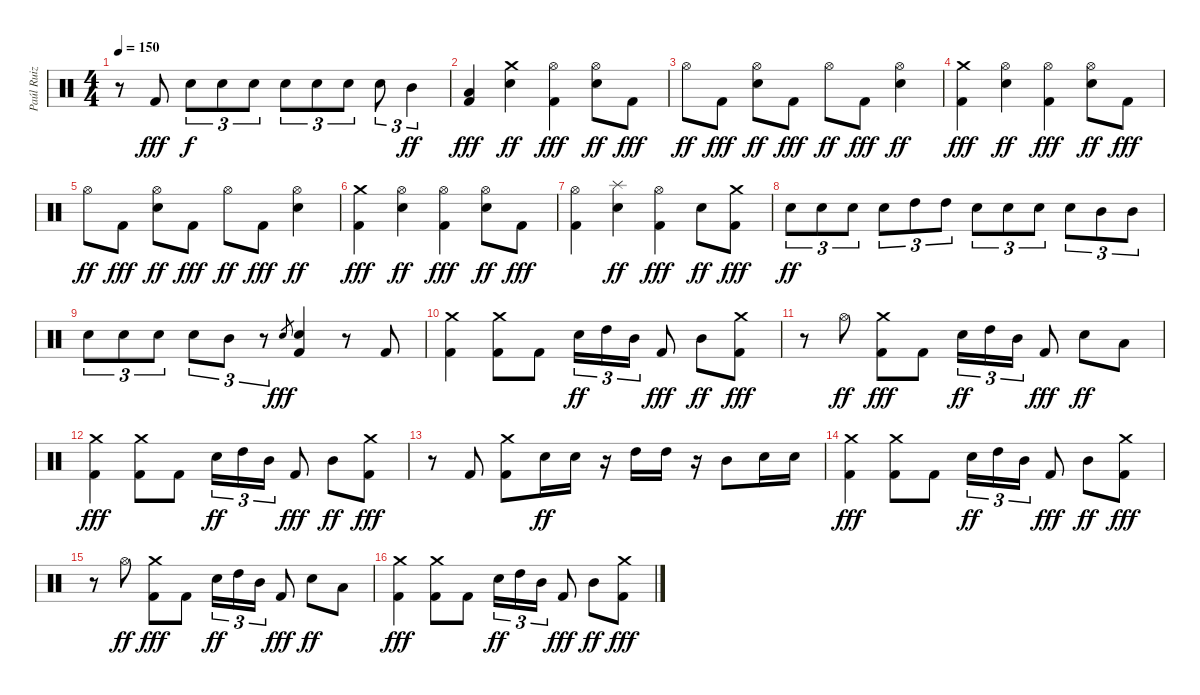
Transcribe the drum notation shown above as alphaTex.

\track ("Paúl Ruiz" "Paúl Ruiz") {instrument percussion}
\staff {score}
\articulation defaults
\ts (4 4)
\tempo 150
\clef neutral
\ks c
r.8{dy fff} "Kick (hit) 2".8 "Snare (hit) 2".8{tu (3 2) dy f} "Snare (hit) 2".8{tu (3 2)} "Snare (hit) 2".8{tu (3 2)} "Snare (hit) 2".8{tu (3 2)} "Snare (hit) 2".8{tu (3 2)} "Snare (hit) 2".8{tu (3 2)} "Snare (hit) 2".8{tu (3 2)} "Mid Tom (hit)".4{tu (3 2) dy ff} |
("Low Tom (hit)" "Kick (hit) 2").4{dy fff} ("Crash medium (hit)" "Snare (hit) 2").4{dy ff} ("Hi-Hat (open)" "Kick (hit) 2").4{dy fff} ("Hi-Hat (open)" "Snare (hit) 2").8{dy ff} "Kick (hit) 2".8{dy fff} |
"Hi-Hat (open)".8{dy ff} "Kick (hit) 2".8{dy fff} ("Hi-Hat (open)" "Snare (hit) 2").8{dy ff} "Kick (hit) 2".8{dy fff} "Hi-Hat (open)".8{dy ff} "Kick (hit) 2".8{dy fff} ("Hi-Hat (open)" "Snare (hit) 2").4{dy ff} |
("Crash medium (hit)" "Kick (hit) 2").4{dy fff} ("Hi-Hat (open)" "Snare (hit) 2").4{dy ff} ("Hi-Hat (open)" "Kick (hit) 2").4{dy fff} ("Hi-Hat (open)" "Snare (hit) 2").8{dy ff} "Kick (hit) 2".8{dy fff} |
"Hi-Hat (open)".8{dy ff} "Kick (hit) 2".8{dy fff} ("Hi-Hat (open)" "Snare (hit) 2").8{dy ff} "Kick (hit) 2".8{dy fff} "Hi-Hat (open)".8{dy ff} "Kick (hit) 2".8{dy fff} ("Hi-Hat (open)" "Snare (hit) 2").4{dy ff} |
("Crash medium (hit)" "Kick (hit) 2").4{dy fff} ("Hi-Hat (open)" "Snare (hit) 2").4{dy ff} ("Hi-Hat (open)" "Kick (hit) 2").4{dy fff} ("Hi-Hat (open)" "Snare (hit) 2").8{dy ff} "Kick (hit) 2".8{dy fff} |
("Hi-Hat (open)" "Kick (hit) 2").4 ("Splash (hit)" "Snare (hit) 2").4{dy ff} ("Hi-Hat (open)" "Kick (hit) 2").4{dy fff} "Snare (hit) 2".8{dy ff} ("Crash medium (hit)" "Kick (hit) 2").8{dy fff} |
"Snare (hit) 2".8{tu (3 2) dy ff} "Snare (hit) 2".8{tu (3 2)} "Snare (hit) 2".8{tu (3 2)} "Snare (hit) 2".8{tu (3 2)} "High Tom (hit)".8{tu (3 2)} "High Tom (hit)".8{tu (3 2)} "Snare (hit) 2".8{tu (3 2)} "Snare (hit) 2".8{tu (3 2)} "Snare (hit) 2".8{tu (3 2)} "Snare (hit) 2".8{tu (3 2)} "Mid Tom (hit)".8{tu (3 2)} "Mid Tom (hit)".8{tu (3 2)} |
"Snare (hit) 2".8{tu (3 2)} "Snare (hit) 2".8{tu (3 2)} "Snare (hit) 2".8{tu (3 2)} "Snare (hit) 2".8{tu (3 2)} "Mid Tom (hit)".8{tu (3 2)} r.8{tu (3 2)} "Snare (hit) 2".8{gr dy fff} ("Snare (hit) 2" "Kick (hit) 2").4 r.8 "Kick (hit) 2".8 |
("Crash medium (hit)" "Kick (hit) 2").4 ("Crash medium (hit)" "Kick (hit) 2").8 "Kick (hit) 2".8 "Snare (hit) 2".16{tu (3 2) dy ff} "High Tom (hit)".16{tu (3 2)} "Mid Tom (hit)".16{tu (3 2)} "Kick (hit) 2".8{dy fff} "Mid Tom (hit)".8{dy ff} ("Crash medium (hit)" "Kick (hit) 2").8{dy fff} |
r.8 "Hi-Hat (open)".8{dy ff} ("Crash medium (hit)" "Kick (hit) 2").8{dy fff} "Kick (hit) 2".8 "Snare (hit) 2".16{tu (3 2) dy ff} "High Tom (hit)".16{tu (3 2)} "Mid Tom (hit)".16{tu (3 2)} "Kick (hit) 2".8{dy fff} "Snare (hit) 2".8{dy ff} "Low Tom (hit)".8 |
("Crash medium (hit)" "Kick (hit) 2").4{dy fff} ("Crash medium (hit)" "Kick (hit) 2").8 "Kick (hit) 2".8 "Snare (hit) 2".16{tu (3 2) dy ff} "High Tom (hit)".16{tu (3 2)} "Mid Tom (hit)".16{tu (3 2)} "Kick (hit) 2".8{dy fff} "Mid Tom (hit)".8{dy ff} ("Crash medium (hit)" "Kick (hit) 2").8{dy fff} |
r.8 "Kick (hit) 2".8 ("Crash medium (hit)" "Kick (hit) 2").8 "Snare (hit) 2".16{dy ff} "Snare (hit) 2".16 r.16 "High Tom (hit)".16 "High Tom (hit)".16 r.16 "Mid Tom (hit)".8 "Snare (hit) 2".16 "Snare (hit) 2".16 |
("Crash medium (hit)" "Kick (hit) 2").4{dy fff} ("Crash medium (hit)" "Kick (hit) 2").8 "Kick (hit) 2".8 "Snare (hit) 2".16{tu (3 2) dy ff} "High Tom (hit)".16{tu (3 2)} "Mid Tom (hit)".16{tu (3 2)} "Kick (hit) 2".8{dy fff} "Mid Tom (hit)".8{dy ff} ("Crash medium (hit)" "Kick (hit) 2").8{dy fff} |
r.8 "Hi-Hat (open)".8{dy ff} ("Crash medium (hit)" "Kick (hit) 2").8{dy fff} "Kick (hit) 2".8 "Snare (hit) 2".16{tu (3 2) dy ff} "High Tom (hit)".16{tu (3 2)} "Mid Tom (hit)".16{tu (3 2)} "Kick (hit) 2".8{dy fff} "Snare (hit) 2".8{dy ff} "Low Tom (hit)".8 |
("Crash medium (hit)" "Kick (hit) 2").4{dy fff} ("Crash medium (hit)" "Kick (hit) 2").8 "Kick (hit) 2".8 "Snare (hit) 2".16{tu (3 2) dy ff} "High Tom (hit)".16{tu (3 2)} "Mid Tom (hit)".16{tu (3 2)} "Kick (hit) 2".8{dy fff} "Mid Tom (hit)".8{dy ff} ("Crash medium (hit)" "Kick (hit) 2").8{dy fff}
